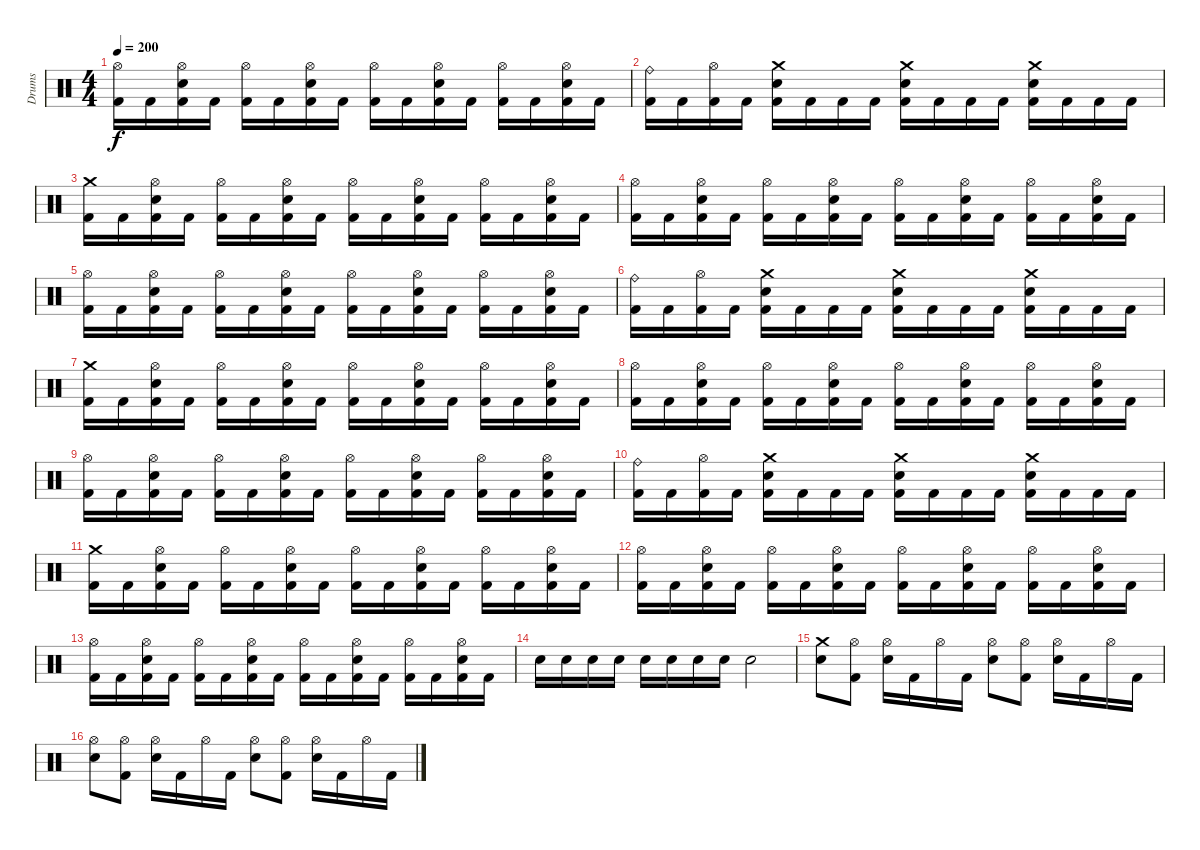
\track ("Drums" "Drums") {instrument percussion}
\staff {score}
\articulation defaults
\ts (4 4)
\tempo 200
\clef neutral
\ks c
("Hi-Hat (open)" "Kick (hit) 2").16{dy f} "Kick (hit) 2".16 ("Hi-Hat (open)" "Snare (hit) 2" "Kick (hit) 2").16 "Kick (hit) 2".16 ("Hi-Hat (open)" "Kick (hit) 2").16 "Kick (hit) 2".16 ("Hi-Hat (open)" "Snare (hit) 2" "Kick (hit) 2").16 "Kick (hit) 2".16 ("Hi-Hat (open)" "Kick (hit) 2").16 "Kick (hit) 2".16 ("Hi-Hat (open)" "Snare (hit) 2" "Kick (hit) 2").16 "Kick (hit) 2".16 ("Hi-Hat (open)" "Kick (hit) 2").16 "Kick (hit) 2".16 ("Hi-Hat (open)" "Snare (hit) 2" "Kick (hit) 2").16 "Kick (hit) 2".16 |
("Ride (bell)" "Kick (hit) 2").16 "Kick (hit) 2".16 ("Hi-Hat (open)" "Kick (hit) 2").16 "Kick (hit) 2".16 ("Crash medium (hit)" "Snare (hit) 2" "Kick (hit) 2").16 "Kick (hit) 2".16 "Kick (hit) 2".16 "Kick (hit) 2".16 ("Crash medium (hit)" "Snare (hit) 2" "Kick (hit) 2").16 "Kick (hit) 2".16 "Kick (hit) 2".16 "Kick (hit) 2".16 ("Crash medium (hit)" "Snare (hit) 2" "Kick (hit) 2").16 "Kick (hit) 2".16 "Kick (hit) 2".16 "Kick (hit) 2".16 |
("Crash medium (hit)" "Kick (hit) 2").16 "Kick (hit) 2".16 ("Hi-Hat (open)" "Snare (hit) 2" "Kick (hit) 2").16 "Kick (hit) 2".16 ("Hi-Hat (open)" "Kick (hit) 2").16 "Kick (hit) 2".16 ("Hi-Hat (open)" "Snare (hit) 2" "Kick (hit) 2").16 "Kick (hit) 2".16 ("Hi-Hat (open)" "Kick (hit) 2").16 "Kick (hit) 2".16 ("Hi-Hat (open)" "Snare (hit) 2" "Kick (hit) 2").16 "Kick (hit) 2".16 ("Hi-Hat (open)" "Kick (hit) 2").16 "Kick (hit) 2".16 ("Hi-Hat (open)" "Snare (hit) 2" "Kick (hit) 2").16 "Kick (hit) 2".16 |
("Hi-Hat (open)" "Kick (hit) 2").16 "Kick (hit) 2".16 ("Hi-Hat (open)" "Snare (hit) 2" "Kick (hit) 2").16 "Kick (hit) 2".16 ("Hi-Hat (open)" "Kick (hit) 2").16 "Kick (hit) 2".16 ("Hi-Hat (open)" "Snare (hit) 2" "Kick (hit) 2").16 "Kick (hit) 2".16 ("Hi-Hat (open)" "Kick (hit) 2").16 "Kick (hit) 2".16 ("Hi-Hat (open)" "Snare (hit) 2" "Kick (hit) 2").16 "Kick (hit) 2".16 ("Hi-Hat (open)" "Kick (hit) 2").16 "Kick (hit) 2".16 ("Hi-Hat (open)" "Snare (hit) 2" "Kick (hit) 2").16 "Kick (hit) 2".16 |
("Hi-Hat (open)" "Kick (hit) 2").16 "Kick (hit) 2".16 ("Hi-Hat (open)" "Snare (hit) 2" "Kick (hit) 2").16 "Kick (hit) 2".16 ("Hi-Hat (open)" "Kick (hit) 2").16 "Kick (hit) 2".16 ("Hi-Hat (open)" "Snare (hit) 2" "Kick (hit) 2").16 "Kick (hit) 2".16 ("Hi-Hat (open)" "Kick (hit) 2").16 "Kick (hit) 2".16 ("Hi-Hat (open)" "Snare (hit) 2" "Kick (hit) 2").16 "Kick (hit) 2".16 ("Hi-Hat (open)" "Kick (hit) 2").16 "Kick (hit) 2".16 ("Hi-Hat (open)" "Snare (hit) 2" "Kick (hit) 2").16 "Kick (hit) 2".16 |
("Ride (bell)" "Kick (hit) 2").16 "Kick (hit) 2".16 ("Hi-Hat (open)" "Kick (hit) 2").16 "Kick (hit) 2".16 ("Crash medium (hit)" "Snare (hit) 2" "Kick (hit) 2").16 "Kick (hit) 2".16 "Kick (hit) 2".16 "Kick (hit) 2".16 ("Crash medium (hit)" "Snare (hit) 2" "Kick (hit) 2").16 "Kick (hit) 2".16 "Kick (hit) 2".16 "Kick (hit) 2".16 ("Crash medium (hit)" "Snare (hit) 2" "Kick (hit) 2").16 "Kick (hit) 2".16 "Kick (hit) 2".16 "Kick (hit) 2".16 |
("Crash medium (hit)" "Kick (hit) 2").16 "Kick (hit) 2".16 ("Hi-Hat (open)" "Snare (hit) 2" "Kick (hit) 2").16 "Kick (hit) 2".16 ("Hi-Hat (open)" "Kick (hit) 2").16 "Kick (hit) 2".16 ("Hi-Hat (open)" "Snare (hit) 2" "Kick (hit) 2").16 "Kick (hit) 2".16 ("Hi-Hat (open)" "Kick (hit) 2").16 "Kick (hit) 2".16 ("Hi-Hat (open)" "Snare (hit) 2" "Kick (hit) 2").16 "Kick (hit) 2".16 ("Hi-Hat (open)" "Kick (hit) 2").16 "Kick (hit) 2".16 ("Hi-Hat (open)" "Snare (hit) 2" "Kick (hit) 2").16 "Kick (hit) 2".16 |
("Hi-Hat (open)" "Kick (hit) 2").16 "Kick (hit) 2".16 ("Hi-Hat (open)" "Snare (hit) 2" "Kick (hit) 2").16 "Kick (hit) 2".16 ("Hi-Hat (open)" "Kick (hit) 2").16 "Kick (hit) 2".16 ("Hi-Hat (open)" "Snare (hit) 2" "Kick (hit) 2").16 "Kick (hit) 2".16 ("Hi-Hat (open)" "Kick (hit) 2").16 "Kick (hit) 2".16 ("Hi-Hat (open)" "Snare (hit) 2" "Kick (hit) 2").16 "Kick (hit) 2".16 ("Hi-Hat (open)" "Kick (hit) 2").16 "Kick (hit) 2".16 ("Hi-Hat (open)" "Snare (hit) 2" "Kick (hit) 2").16 "Kick (hit) 2".16 |
("Hi-Hat (open)" "Kick (hit) 2").16 "Kick (hit) 2".16 ("Hi-Hat (open)" "Snare (hit) 2" "Kick (hit) 2").16 "Kick (hit) 2".16 ("Hi-Hat (open)" "Kick (hit) 2").16 "Kick (hit) 2".16 ("Hi-Hat (open)" "Snare (hit) 2" "Kick (hit) 2").16 "Kick (hit) 2".16 ("Hi-Hat (open)" "Kick (hit) 2").16 "Kick (hit) 2".16 ("Hi-Hat (open)" "Snare (hit) 2" "Kick (hit) 2").16 "Kick (hit) 2".16 ("Hi-Hat (open)" "Kick (hit) 2").16 "Kick (hit) 2".16 ("Hi-Hat (open)" "Snare (hit) 2" "Kick (hit) 2").16 "Kick (hit) 2".16 |
("Ride (bell)" "Kick (hit) 2").16 "Kick (hit) 2".16 ("Hi-Hat (open)" "Kick (hit) 2").16 "Kick (hit) 2".16 ("Crash medium (hit)" "Snare (hit) 2" "Kick (hit) 2").16 "Kick (hit) 2".16 "Kick (hit) 2".16 "Kick (hit) 2".16 ("Crash medium (hit)" "Snare (hit) 2" "Kick (hit) 2").16 "Kick (hit) 2".16 "Kick (hit) 2".16 "Kick (hit) 2".16 ("Crash medium (hit)" "Snare (hit) 2" "Kick (hit) 2").16 "Kick (hit) 2".16 "Kick (hit) 2".16 "Kick (hit) 2".16 |
("Crash medium (hit)" "Kick (hit) 2").16 "Kick (hit) 2".16 ("Hi-Hat (open)" "Snare (hit) 2" "Kick (hit) 2").16 "Kick (hit) 2".16 ("Hi-Hat (open)" "Kick (hit) 2").16 "Kick (hit) 2".16 ("Hi-Hat (open)" "Snare (hit) 2" "Kick (hit) 2").16 "Kick (hit) 2".16 ("Hi-Hat (open)" "Kick (hit) 2").16 "Kick (hit) 2".16 ("Hi-Hat (open)" "Snare (hit) 2" "Kick (hit) 2").16 "Kick (hit) 2".16 ("Hi-Hat (open)" "Kick (hit) 2").16 "Kick (hit) 2".16 ("Hi-Hat (open)" "Snare (hit) 2" "Kick (hit) 2").16 "Kick (hit) 2".16 |
("Hi-Hat (open)" "Kick (hit) 2").16 "Kick (hit) 2".16 ("Hi-Hat (open)" "Snare (hit) 2" "Kick (hit) 2").16 "Kick (hit) 2".16 ("Hi-Hat (open)" "Kick (hit) 2").16 "Kick (hit) 2".16 ("Hi-Hat (open)" "Snare (hit) 2" "Kick (hit) 2").16 "Kick (hit) 2".16 ("Hi-Hat (open)" "Kick (hit) 2").16 "Kick (hit) 2".16 ("Hi-Hat (open)" "Snare (hit) 2" "Kick (hit) 2").16 "Kick (hit) 2".16 ("Hi-Hat (open)" "Kick (hit) 2").16 "Kick (hit) 2".16 ("Hi-Hat (open)" "Snare (hit) 2" "Kick (hit) 2").16 "Kick (hit) 2".16 |
("Hi-Hat (open)" "Kick (hit) 2").16 "Kick (hit) 2".16 ("Hi-Hat (open)" "Snare (hit) 2" "Kick (hit) 2").16 "Kick (hit) 2".16 ("Hi-Hat (open)" "Kick (hit) 2").16 "Kick (hit) 2".16 ("Hi-Hat (open)" "Snare (hit) 2" "Kick (hit) 2").16 "Kick (hit) 2".16 ("Hi-Hat (open)" "Kick (hit) 2").16 "Kick (hit) 2".16 ("Hi-Hat (open)" "Snare (hit) 2" "Kick (hit) 2").16 "Kick (hit) 2".16 ("Hi-Hat (open)" "Kick (hit) 2").16 "Kick (hit) 2".16 ("Hi-Hat (open)" "Snare (hit) 2" "Kick (hit) 2").16 "Kick (hit) 2".16 |
"Snare (hit) 2".16 "Snare (hit) 2".16 "Snare (hit) 2".16 "Snare (hit) 2".16 "Snare (hit) 2".16 "Snare (hit) 2".16 "Snare (hit) 2".16 "Snare (hit) 2".16 "Snare (hit) 2".2 |
("Crash medium (hit)" "Snare (hit) 2").8 ("Hi-Hat (open)" "Kick (hit) 2").8 ("Hi-Hat (open)" "Snare (hit) 2").16 "Kick (hit) 2".16 "Hi-Hat (open)".16 "Kick (hit) 2".16 ("Hi-Hat (open)" "Snare (hit) 2").8 ("Hi-Hat (open)" "Kick (hit) 2").8 ("Hi-Hat (open)" "Snare (hit) 2").16 "Kick (hit) 2".16 "Hi-Hat (open)".16 "Kick (hit) 2".16 |
("Hi-Hat (open)" "Snare (hit) 2").8 ("Hi-Hat (open)" "Kick (hit) 2").8 ("Hi-Hat (open)" "Snare (hit) 2").16 "Kick (hit) 2".16 "Hi-Hat (open)".16 "Kick (hit) 2".16 ("Hi-Hat (open)" "Snare (hit) 2").8 ("Hi-Hat (open)" "Kick (hit) 2").8 ("Hi-Hat (open)" "Snare (hit) 2").16 "Kick (hit) 2".16 "Hi-Hat (open)".16 "Kick (hit) 2".16
